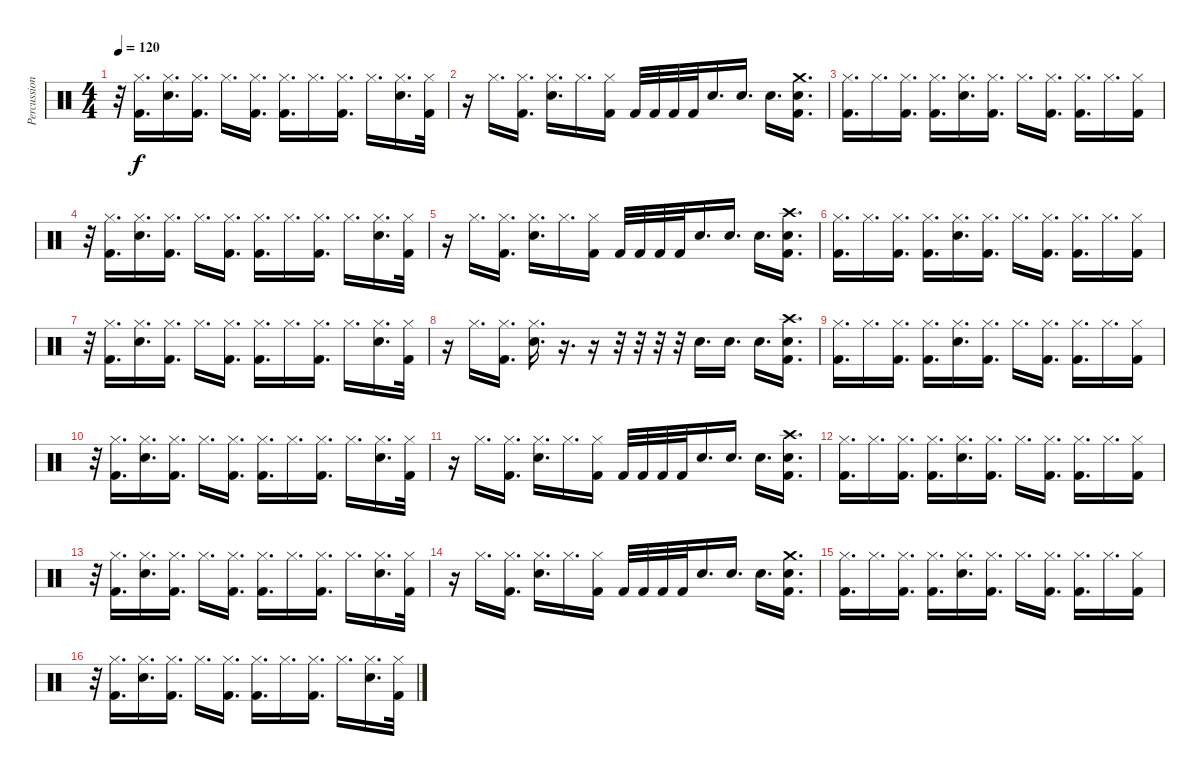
\track ("Percussion" "Percussion") {instrument percussion}
\staff {score}
\articulation defaults
\ts (4 4)
\tempo 120
\clef neutral
\ks c
r.32{dy f} ("Hi-Hat (closed)" "Kick (hit) 2").16{d} ("Hi-Hat (closed)" "Electric Snare (hit)").16{d} ("Hi-Hat (closed)" "Kick (hit) 2").16{d} "Hi-Hat (closed)".16{d} ("Hi-Hat (closed)" "Kick (hit) 2").16{d} ("Hi-Hat (closed)" "Kick (hit) 2").16{d} "Hi-Hat (closed)".16{d} ("Hi-Hat (closed)" "Kick (hit) 2").16{d} "Hi-Hat (closed)".16{d} ("Hi-Hat (closed)" "Electric Snare (hit)").16{d} ("Hi-Hat (closed)" "Kick (hit) 2").32 |
r.16 "Hi-Hat (closed)".16{d} ("Hi-Hat (closed)" "Kick (hit) 2").16{d} ("Hi-Hat (closed)" "Electric Snare (hit)").16{d} "Hi-Hat (closed)".16{d} ("Hi-Hat (closed)" "Kick (hit) 2").16 "Kick (hit) 2".32 "Kick (hit) 2".32 "Kick (hit) 2".32 "Kick (hit) 2".32 "Electric Snare (hit)".16{d} "Electric Snare (hit)".16{d} "Electric Snare (hit)".16{d} ("Crash medium (hit)" "Electric Snare (hit)" "Kick (hit) 2").16{d} |
("Hi-Hat (closed)" "Kick (hit) 2").16{d} "Hi-Hat (closed)".16{d} ("Hi-Hat (closed)" "Kick (hit) 2").16{d} ("Hi-Hat (closed)" "Kick (hit) 2").16{d} ("Hi-Hat (closed)" "Electric Snare (hit)").16{d} ("Hi-Hat (closed)" "Kick (hit) 2").16{d} "Hi-Hat (closed)".16{d} ("Hi-Hat (closed)" "Kick (hit) 2").16{d} ("Hi-Hat (closed)" "Kick (hit) 2").16{d} "Hi-Hat (closed)".16{d} ("Hi-Hat (closed)" "Kick (hit) 2").16 |
r.32 ("Hi-Hat (closed)" "Kick (hit) 2").16{d} ("Hi-Hat (closed)" "Electric Snare (hit)").16{d} ("Hi-Hat (closed)" "Kick (hit) 2").16{d} "Hi-Hat (closed)".16{d} ("Hi-Hat (closed)" "Kick (hit) 2").16{d} ("Hi-Hat (closed)" "Kick (hit) 2").16{d} "Hi-Hat (closed)".16{d} ("Hi-Hat (closed)" "Kick (hit) 2").16{d} "Hi-Hat (closed)".16{d} ("Hi-Hat (closed)" "Electric Snare (hit)").16{d} ("Hi-Hat (closed)" "Kick (hit) 2").32 |
r.16 "Hi-Hat (closed)".16{d} ("Hi-Hat (closed)" "Kick (hit) 2").16{d} ("Hi-Hat (closed)" "Electric Snare (hit)").16{d} "Hi-Hat (closed)".16{d} ("Hi-Hat (closed)" "Kick (hit) 2").16 "Kick (hit) 2".32 "Kick (hit) 2".32 "Kick (hit) 2".32 "Kick (hit) 2".32 "Electric Snare (hit)".16{d} "Electric Snare (hit)".16{d} "Electric Snare (hit)".16{d} ("Crash high (hit)" "Electric Snare (hit)" "Kick (hit) 2").16{d} |
("Hi-Hat (closed)" "Kick (hit) 2").16{d} "Hi-Hat (closed)".16{d} ("Hi-Hat (closed)" "Kick (hit) 2").16{d} ("Hi-Hat (closed)" "Kick (hit) 2").16{d} ("Hi-Hat (closed)" "Electric Snare (hit)").16{d} ("Hi-Hat (closed)" "Kick (hit) 2").16{d} "Hi-Hat (closed)".16{d} ("Hi-Hat (closed)" "Kick (hit) 2").16{d} ("Hi-Hat (closed)" "Kick (hit) 2").16{d} "Hi-Hat (closed)".16{d} ("Hi-Hat (closed)" "Kick (hit) 2").16 |
r.32 ("Hi-Hat (closed)" "Kick (hit) 2").16{d} ("Hi-Hat (closed)" "Electric Snare (hit)").16{d} ("Hi-Hat (closed)" "Kick (hit) 2").16{d} "Hi-Hat (closed)".16{d} ("Hi-Hat (closed)" "Kick (hit) 2").16{d} ("Hi-Hat (closed)" "Kick (hit) 2").16{d} "Hi-Hat (closed)".16{d} ("Hi-Hat (closed)" "Kick (hit) 2").16{d} "Hi-Hat (closed)".16{d} ("Hi-Hat (closed)" "Electric Snare (hit)").16{d} ("Hi-Hat (closed)" "Kick (hit) 2").32 |
r.16 "Hi-Hat (closed)".16{d} ("Hi-Hat (closed)" "Kick (hit) 2").16{d} ("Hi-Hat (closed)" "Electric Snare (hit)").16{d} r.16{d} r.16 r.32 r.32 r.32 r.32 "Electric Snare (hit)".16{d} "Electric Snare (hit)".16{d} "Electric Snare (hit)".16{d} ("Crash high (hit)" "Electric Snare (hit)" "Kick (hit) 2").16{d} |
("Hi-Hat (closed)" "Kick (hit) 2").16{d} "Hi-Hat (closed)".16{d} ("Hi-Hat (closed)" "Kick (hit) 2").16{d} ("Hi-Hat (closed)" "Kick (hit) 2").16{d} ("Hi-Hat (closed)" "Electric Snare (hit)").16{d} ("Hi-Hat (closed)" "Kick (hit) 2").16{d} "Hi-Hat (closed)".16{d} ("Hi-Hat (closed)" "Kick (hit) 2").16{d} ("Hi-Hat (closed)" "Kick (hit) 2").16{d} "Hi-Hat (closed)".16{d} ("Hi-Hat (closed)" "Kick (hit) 2").16 |
r.32 ("Hi-Hat (closed)" "Kick (hit) 2").16{d} ("Hi-Hat (closed)" "Electric Snare (hit)").16{d} ("Hi-Hat (closed)" "Kick (hit) 2").16{d} "Hi-Hat (closed)".16{d} ("Hi-Hat (closed)" "Kick (hit) 2").16{d} ("Hi-Hat (closed)" "Kick (hit) 2").16{d} "Hi-Hat (closed)".16{d} ("Hi-Hat (closed)" "Kick (hit) 2").16{d} "Hi-Hat (closed)".16{d} ("Hi-Hat (closed)" "Electric Snare (hit)").16{d} ("Hi-Hat (closed)" "Kick (hit) 2").32 |
r.16 "Hi-Hat (closed)".16{d} ("Hi-Hat (closed)" "Kick (hit) 2").16{d} ("Hi-Hat (closed)" "Electric Snare (hit)").16{d} "Hi-Hat (closed)".16{d} ("Hi-Hat (closed)" "Kick (hit) 2").16 "Kick (hit) 2".32 "Kick (hit) 2".32 "Kick (hit) 2".32 "Kick (hit) 2".32 "Electric Snare (hit)".16{d} "Electric Snare (hit)".16{d} "Electric Snare (hit)".16{d} ("Crash high (hit)" "Electric Snare (hit)" "Kick (hit) 2").16{d} |
("Hi-Hat (closed)" "Kick (hit) 2").16{d} "Hi-Hat (closed)".16{d} ("Hi-Hat (closed)" "Kick (hit) 2").16{d} ("Hi-Hat (closed)" "Kick (hit) 2").16{d} ("Hi-Hat (closed)" "Electric Snare (hit)").16{d} ("Hi-Hat (closed)" "Kick (hit) 2").16{d} "Hi-Hat (closed)".16{d} ("Hi-Hat (closed)" "Kick (hit) 2").16{d} ("Hi-Hat (closed)" "Kick (hit) 2").16{d} "Hi-Hat (closed)".16{d} ("Hi-Hat (closed)" "Kick (hit) 2").16 |
r.32 ("Hi-Hat (closed)" "Kick (hit) 2").16{d} ("Hi-Hat (closed)" "Electric Snare (hit)").16{d} ("Hi-Hat (closed)" "Kick (hit) 2").16{d} "Hi-Hat (closed)".16{d} ("Hi-Hat (closed)" "Kick (hit) 2").16{d} ("Hi-Hat (closed)" "Kick (hit) 2").16{d} "Hi-Hat (closed)".16{d} ("Hi-Hat (closed)" "Kick (hit) 2").16{d} "Hi-Hat (closed)".16{d} ("Hi-Hat (closed)" "Electric Snare (hit)").16{d} ("Hi-Hat (closed)" "Kick (hit) 2").32 |
r.16 "Hi-Hat (closed)".16{d} ("Hi-Hat (closed)" "Kick (hit) 2").16{d} ("Hi-Hat (closed)" "Electric Snare (hit)").16{d} "Hi-Hat (closed)".16{d} ("Hi-Hat (closed)" "Kick (hit) 2").16 "Kick (hit) 2".32 "Kick (hit) 2".32 "Kick (hit) 2".32 "Kick (hit) 2".32 "Electric Snare (hit)".16{d} "Electric Snare (hit)".16{d} "Electric Snare (hit)".16{d} ("Crash medium (hit)" "Electric Snare (hit)" "Kick (hit) 2").16{d} |
("Hi-Hat (closed)" "Kick (hit) 2").16{d} "Hi-Hat (closed)".16{d} ("Hi-Hat (closed)" "Kick (hit) 2").16{d} ("Hi-Hat (closed)" "Kick (hit) 2").16{d} ("Hi-Hat (closed)" "Electric Snare (hit)").16{d} ("Hi-Hat (closed)" "Kick (hit) 2").16{d} "Hi-Hat (closed)".16{d} ("Hi-Hat (closed)" "Kick (hit) 2").16{d} ("Hi-Hat (closed)" "Kick (hit) 2").16{d} "Hi-Hat (closed)".16{d} ("Hi-Hat (closed)" "Kick (hit) 2").16 |
r.32 ("Hi-Hat (closed)" "Kick (hit) 2").16{d} ("Hi-Hat (closed)" "Electric Snare (hit)").16{d} ("Hi-Hat (closed)" "Kick (hit) 2").16{d} "Hi-Hat (closed)".16{d} ("Hi-Hat (closed)" "Kick (hit) 2").16{d} ("Hi-Hat (closed)" "Kick (hit) 2").16{d} "Hi-Hat (closed)".16{d} ("Hi-Hat (closed)" "Kick (hit) 2").16{d} "Hi-Hat (closed)".16{d} ("Hi-Hat (closed)" "Electric Snare (hit)").16{d} ("Hi-Hat (closed)" "Kick (hit) 2").32
